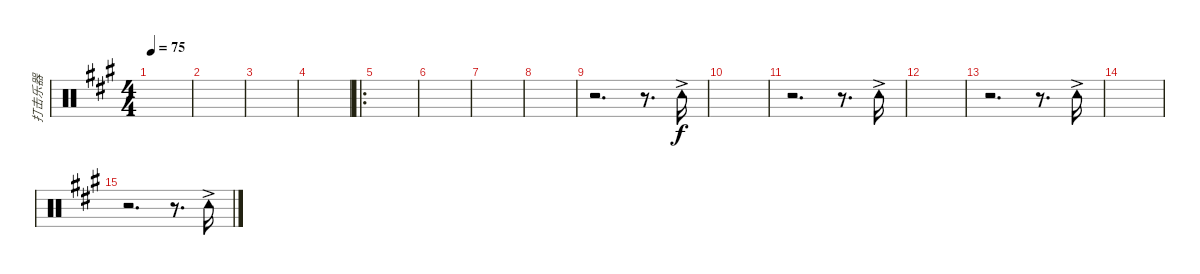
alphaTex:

\track ("打击乐器" "打击乐器") {instrument percussion}
\staff {score}
\articulation defaults
\ts (4 4)
\tempo 75
\clef neutral
\ks a
|
|
|
|
\ro
|
|
|
|
r.2{d} r.8{d} "Tambourine (hit)"{ac}.16 |
|
r.2{d} r.8{d} "Tambourine (hit)"{ac}.16 |
|
r.2{d} r.8{d} "Tambourine (hit)"{ac}.16 |
|
r.2{d} r.8{d} "Tambourine (hit)"{ac}.16
